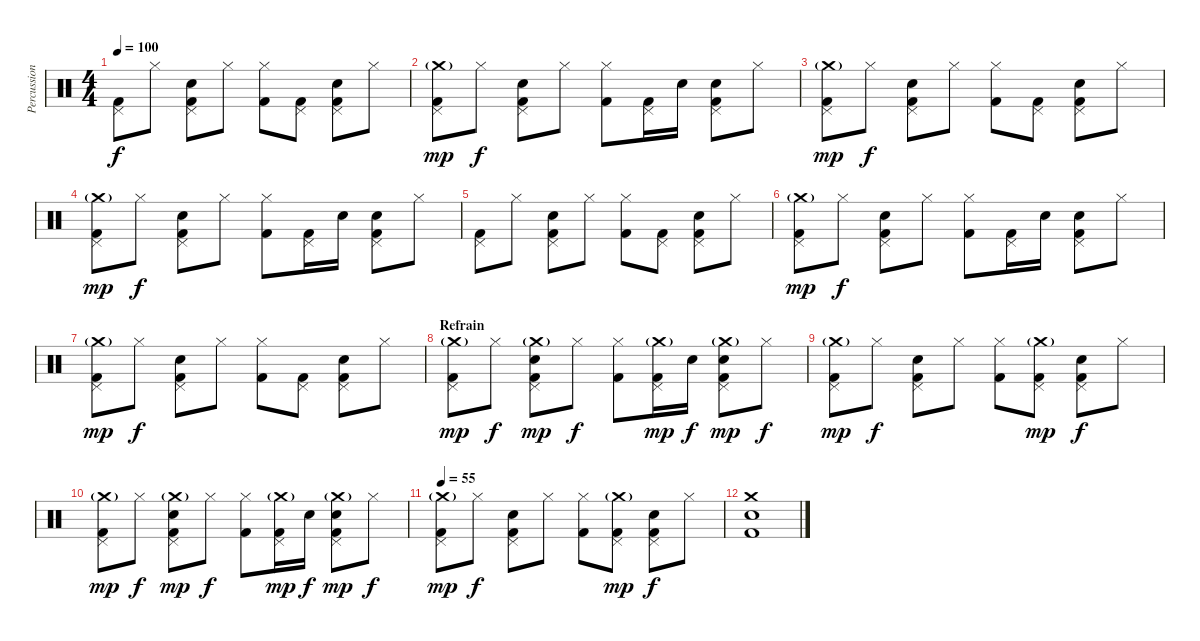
\track ("Percussions" "Percussion") {instrument percussion}
\staff {score}
\articulation defaults
\ts (4 4)
\tempo 100
\clef neutral
\ks c
("Pedal Hi-Hat (hit)" "Kick (hit) 2").8{dy f} "Hi-Hat (closed)".8 ("Pedal Hi-Hat (hit)" "Electric Snare (hit)" "Kick (hit) 2").8 "Hi-Hat (closed)".8 ("Hi-Hat (closed)" "Kick (hit) 2").8 ("Pedal Hi-Hat (hit)" "Kick (hit) 2").8 ("Pedal Hi-Hat (hit)" "Electric Snare (hit)" "Kick (hit) 2").8 "Hi-Hat (closed)".8 |
("Crash medium (hit)"{g} "Pedal Hi-Hat (hit)" "Kick (hit) 2").8{dy mp} "Hi-Hat (closed)".8{dy f} ("Pedal Hi-Hat (hit)" "Electric Snare (hit)" "Kick (hit) 2").8 "Hi-Hat (closed)".8 ("Hi-Hat (closed)" "Kick (hit) 2").8 ("Pedal Hi-Hat (hit)" "Kick (hit) 2").16 "Electric Snare (hit)".16 ("Pedal Hi-Hat (hit)" "Electric Snare (hit)" "Kick (hit) 2").8 "Hi-Hat (closed)".8 |
("Crash medium (hit)"{g} "Pedal Hi-Hat (hit)" "Kick (hit) 2").8{dy mp} "Hi-Hat (closed)".8{dy f} ("Pedal Hi-Hat (hit)" "Electric Snare (hit)" "Kick (hit) 2").8 "Hi-Hat (closed)".8 ("Hi-Hat (closed)" "Kick (hit) 2").8 ("Pedal Hi-Hat (hit)" "Kick (hit) 2").8 ("Pedal Hi-Hat (hit)" "Electric Snare (hit)" "Kick (hit) 2").8 "Hi-Hat (closed)".8 |
("Crash medium (hit)"{g} "Pedal Hi-Hat (hit)" "Kick (hit) 2").8{dy mp} "Hi-Hat (closed)".8{dy f} ("Pedal Hi-Hat (hit)" "Electric Snare (hit)" "Kick (hit) 2").8 "Hi-Hat (closed)".8 ("Hi-Hat (closed)" "Kick (hit) 2").8 ("Pedal Hi-Hat (hit)" "Kick (hit) 2").16 "Electric Snare (hit)".16 ("Pedal Hi-Hat (hit)" "Electric Snare (hit)" "Kick (hit) 2").8 "Hi-Hat (closed)".8 |
("Pedal Hi-Hat (hit)" "Kick (hit) 2").8 "Hi-Hat (closed)".8 ("Pedal Hi-Hat (hit)" "Electric Snare (hit)" "Kick (hit) 2").8 "Hi-Hat (closed)".8 ("Hi-Hat (closed)" "Kick (hit) 2").8 ("Pedal Hi-Hat (hit)" "Kick (hit) 2").8 ("Pedal Hi-Hat (hit)" "Electric Snare (hit)" "Kick (hit) 2").8 "Hi-Hat (closed)".8 |
("Crash medium (hit)"{g} "Pedal Hi-Hat (hit)" "Kick (hit) 2").8{dy mp} "Hi-Hat (closed)".8{dy f} ("Pedal Hi-Hat (hit)" "Electric Snare (hit)" "Kick (hit) 2").8 "Hi-Hat (closed)".8 ("Hi-Hat (closed)" "Kick (hit) 2").8 ("Pedal Hi-Hat (hit)" "Kick (hit) 2").16 "Electric Snare (hit)".16 ("Pedal Hi-Hat (hit)" "Electric Snare (hit)" "Kick (hit) 2").8 "Hi-Hat (closed)".8 |
("Crash medium (hit)"{g} "Pedal Hi-Hat (hit)" "Kick (hit) 2").8{dy mp} "Hi-Hat (closed)".8{dy f} ("Pedal Hi-Hat (hit)" "Electric Snare (hit)" "Kick (hit) 2").8 "Hi-Hat (closed)".8 ("Hi-Hat (closed)" "Kick (hit) 2").8 ("Pedal Hi-Hat (hit)" "Kick (hit) 2").8 ("Pedal Hi-Hat (hit)" "Electric Snare (hit)" "Kick (hit) 2").8 "Hi-Hat (closed)".8 |
\section ("" "Refrain")
("Crash medium (hit)"{g} "Pedal Hi-Hat (hit)" "Kick (hit) 2").8{dy mp} "Hi-Hat (closed)".8{dy f} ("Crash medium (hit)"{g} "Pedal Hi-Hat (hit)" "Electric Snare (hit)" "Kick (hit) 2").8{dy mp} "Hi-Hat (closed)".8{dy f} ("Hi-Hat (closed)" "Kick (hit) 2").8 ("Crash medium (hit)"{g} "Pedal Hi-Hat (hit)" "Kick (hit) 2").16{dy mp} "Electric Snare (hit)".16{dy f} ("Crash medium (hit)"{g} "Pedal Hi-Hat (hit)" "Electric Snare (hit)" "Kick (hit) 2").8{dy mp} "Hi-Hat (closed)".8{dy f} |
("Crash medium (hit)"{g} "Pedal Hi-Hat (hit)" "Kick (hit) 2").8{dy mp} "Hi-Hat (closed)".8{dy f} ("Pedal Hi-Hat (hit)" "Electric Snare (hit)" "Kick (hit) 2").8 "Hi-Hat (closed)".8 ("Hi-Hat (closed)" "Kick (hit) 2").8 ("Crash medium (hit)"{g} "Pedal Hi-Hat (hit)" "Kick (hit) 2").8{dy mp} ("Pedal Hi-Hat (hit)" "Electric Snare (hit)" "Kick (hit) 2").8{dy f} "Hi-Hat (closed)".8 |
("Crash medium (hit)"{g} "Pedal Hi-Hat (hit)" "Kick (hit) 2").8{dy mp} "Hi-Hat (closed)".8{dy f} ("Crash medium (hit)"{g} "Pedal Hi-Hat (hit)" "Electric Snare (hit)" "Kick (hit) 2").8{dy mp} "Hi-Hat (closed)".8{dy f} ("Hi-Hat (closed)" "Kick (hit) 2").8 ("Crash medium (hit)"{g} "Pedal Hi-Hat (hit)" "Kick (hit) 2").16{dy mp} "Electric Snare (hit)".16{dy f} ("Crash medium (hit)"{g} "Pedal Hi-Hat (hit)" "Electric Snare (hit)" "Kick (hit) 2").8{dy mp} "Hi-Hat (closed)".8{dy f} |
\tempo 55
("Crash medium (hit)"{g} "Pedal Hi-Hat (hit)" "Kick (hit) 2").8{dy mp} "Hi-Hat (closed)".8{dy f} ("Pedal Hi-Hat (hit)" "Electric Snare (hit)" "Kick (hit) 2").8 "Hi-Hat (closed)".8 ("Hi-Hat (closed)" "Kick (hit) 2").8 ("Crash medium (hit)"{g} "Pedal Hi-Hat (hit)" "Kick (hit) 2").8{dy mp} ("Pedal Hi-Hat (hit)" "Electric Snare (hit)" "Kick (hit) 2").8{dy f} "Hi-Hat (closed)".8 |
("Crash medium (hit)" "Kick (hit) 2" "Electric Snare (hit)").1
